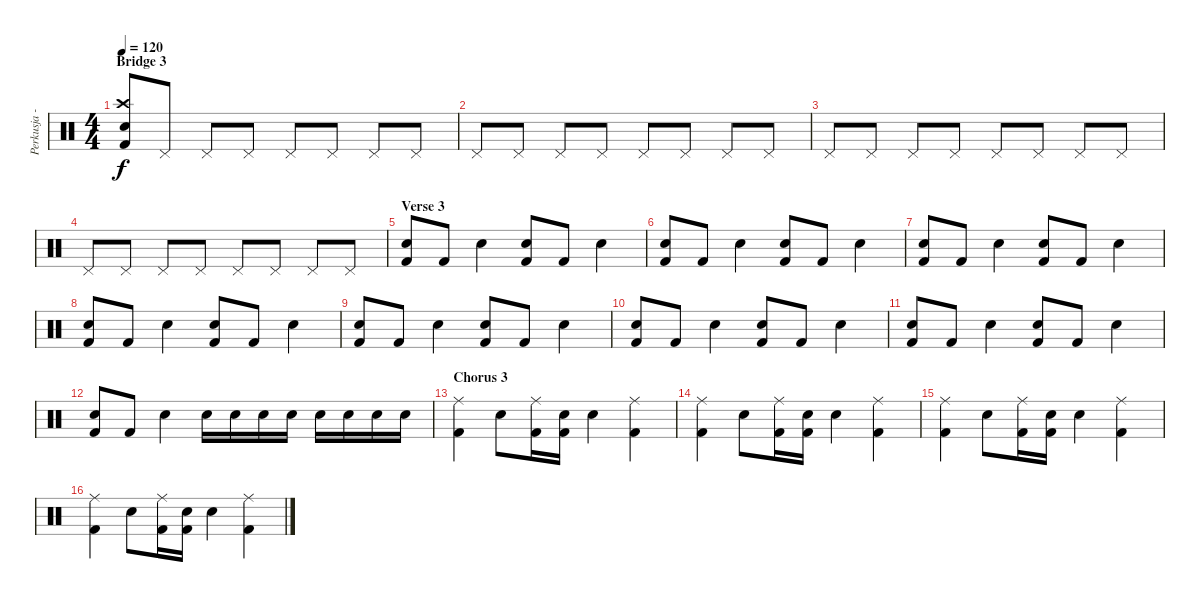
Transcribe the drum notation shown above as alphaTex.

\track ("Perkusja - Mielony" "Perkusja -") {instrument percussion}
\staff {score}
\articulation defaults
\ts (4 4)
\section ("" "Bridge 3")
\tempo 120
\clef neutral
\ks c
("Snare (hit) 2" "Crash high (hit)" "Kick (hit) 2").8{dy f} "Pedal Hi-Hat (hit)".8 "Pedal Hi-Hat (hit)".8 "Pedal Hi-Hat (hit)".8 "Pedal Hi-Hat (hit)".8 "Pedal Hi-Hat (hit)".8 "Pedal Hi-Hat (hit)".8 "Pedal Hi-Hat (hit)".8 |
"Pedal Hi-Hat (hit)".8 "Pedal Hi-Hat (hit)".8 "Pedal Hi-Hat (hit)".8 "Pedal Hi-Hat (hit)".8 "Pedal Hi-Hat (hit)".8 "Pedal Hi-Hat (hit)".8 "Pedal Hi-Hat (hit)".8 "Pedal Hi-Hat (hit)".8 |
"Pedal Hi-Hat (hit)".8 "Pedal Hi-Hat (hit)".8 "Pedal Hi-Hat (hit)".8 "Pedal Hi-Hat (hit)".8 "Pedal Hi-Hat (hit)".8 "Pedal Hi-Hat (hit)".8 "Pedal Hi-Hat (hit)".8 "Pedal Hi-Hat (hit)".8 |
"Pedal Hi-Hat (hit)".8 "Pedal Hi-Hat (hit)".8 "Pedal Hi-Hat (hit)".8 "Pedal Hi-Hat (hit)".8 "Pedal Hi-Hat (hit)".8 "Pedal Hi-Hat (hit)".8 "Pedal Hi-Hat (hit)".8 "Pedal Hi-Hat (hit)".8 |
\section ("" "Verse 3")
("Snare (hit) 2" "Kick (hit) 2").8 "Kick (hit) 2".8 "Snare (hit) 2".4 ("Snare (hit) 2" "Kick (hit) 2").8 "Kick (hit) 2".8 "Snare (hit) 2".4 |
("Snare (hit) 2" "Kick (hit) 2").8 "Kick (hit) 2".8 "Snare (hit) 2".4 ("Snare (hit) 2" "Kick (hit) 2").8 "Kick (hit) 2".8 "Snare (hit) 2".4 |
("Snare (hit) 2" "Kick (hit) 2").8 "Kick (hit) 2".8 "Snare (hit) 2".4 ("Snare (hit) 2" "Kick (hit) 2").8 "Kick (hit) 2".8 "Snare (hit) 2".4 |
("Snare (hit) 2" "Kick (hit) 2").8 "Kick (hit) 2".8 "Snare (hit) 2".4 ("Snare (hit) 2" "Kick (hit) 2").8 "Kick (hit) 2".8 "Snare (hit) 2".4 |
("Snare (hit) 2" "Kick (hit) 2").8 "Kick (hit) 2".8 "Snare (hit) 2".4 ("Snare (hit) 2" "Kick (hit) 2").8 "Kick (hit) 2".8 "Snare (hit) 2".4 |
("Snare (hit) 2" "Kick (hit) 2").8 "Kick (hit) 2".8 "Snare (hit) 2".4 ("Snare (hit) 2" "Kick (hit) 2").8 "Kick (hit) 2".8 "Snare (hit) 2".4 |
("Snare (hit) 2" "Kick (hit) 2").8 "Kick (hit) 2".8 "Snare (hit) 2".4 ("Snare (hit) 2" "Kick (hit) 2").8 "Kick (hit) 2".8 "Snare (hit) 2".4 |
("Snare (hit) 2" "Kick (hit) 2").8 "Kick (hit) 2".8 "Snare (hit) 2".4 "Snare (hit) 2".16 "Snare (hit) 2".16 "Snare (hit) 2".16 "Snare (hit) 2".16 "Snare (hit) 2".16 "Snare (hit) 2".16 "Snare (hit) 2".16 "Snare (hit) 2".16 |
\section ("" "Chorus 3")
("Ride (middle)" "Kick (hit) 2").4 "Snare (hit) 2".8 ("Ride (middle)" "Kick (hit) 2").16 ("Snare (hit) 2" "Kick (hit) 2").16 "Snare (hit) 2".4 ("Ride (middle)" "Kick (hit) 2").4 |
("Ride (middle)" "Kick (hit) 2").4 "Snare (hit) 2".8 ("Ride (middle)" "Kick (hit) 2").16 ("Snare (hit) 2" "Kick (hit) 2").16 "Snare (hit) 2".4 ("Ride (middle)" "Kick (hit) 2").4 |
("Ride (middle)" "Kick (hit) 2").4 "Snare (hit) 2".8 ("Ride (middle)" "Kick (hit) 2").16 ("Snare (hit) 2" "Kick (hit) 2").16 "Snare (hit) 2".4 ("Ride (middle)" "Kick (hit) 2").4 |
("Ride (middle)" "Kick (hit) 2").4 "Snare (hit) 2".8 ("Ride (middle)" "Kick (hit) 2").16 ("Snare (hit) 2" "Kick (hit) 2").16 "Snare (hit) 2".4 ("Ride (middle)" "Kick (hit) 2").4
